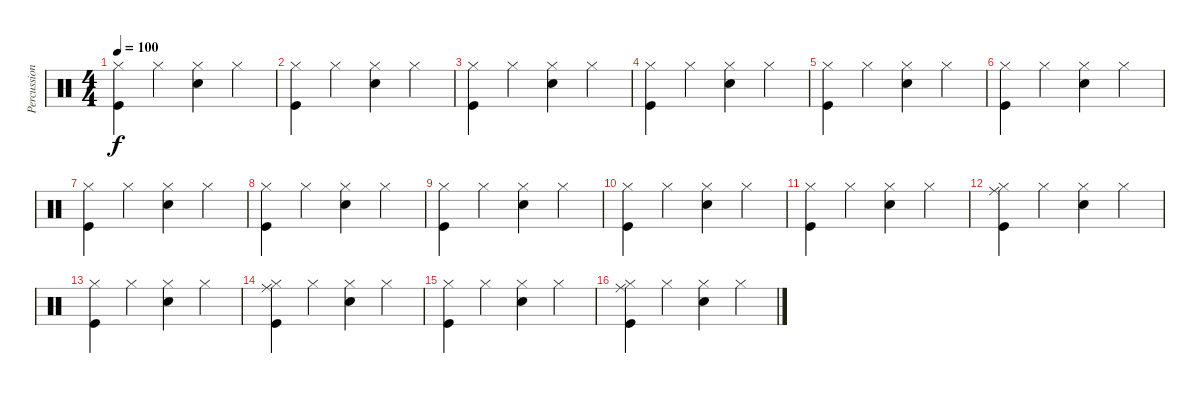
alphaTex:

\track ("Percussion" "Percussion") {instrument percussion}
\staff {score}
\articulation defaults
\ts (4 4)
\tempo 100
\clef neutral
\ks c
("Hi-Hat (closed)" "Kick (hit)").4{dy f} "Hi-Hat (closed)".4 ("Hi-Hat (closed)" "Electric Snare (hit)").4 "Hi-Hat (closed)".4 |
("Hi-Hat (closed)" "Kick (hit)").4 "Hi-Hat (closed)".4 ("Hi-Hat (closed)" "Electric Snare (hit)").4 "Hi-Hat (closed)".4 |
("Hi-Hat (closed)" "Kick (hit)").4 "Hi-Hat (closed)".4 ("Hi-Hat (closed)" "Electric Snare (hit)").4 "Hi-Hat (closed)".4 |
("Hi-Hat (closed)" "Kick (hit)").4 "Hi-Hat (closed)".4 ("Hi-Hat (closed)" "Electric Snare (hit)").4 "Hi-Hat (closed)".4 |
("Hi-Hat (closed)" "Kick (hit)").4 "Hi-Hat (closed)".4 ("Hi-Hat (closed)" "Electric Snare (hit)").4 "Hi-Hat (closed)".4 |
("Hi-Hat (closed)" "Kick (hit)").4 "Hi-Hat (closed)".4 ("Hi-Hat (closed)" "Electric Snare (hit)").4 "Hi-Hat (closed)".4 |
("Hi-Hat (closed)" "Kick (hit)").4 "Hi-Hat (closed)".4 ("Hi-Hat (closed)" "Electric Snare (hit)").4 "Hi-Hat (closed)".4 |
("Hi-Hat (closed)" "Kick (hit)").4 "Hi-Hat (closed)".4 ("Hi-Hat (closed)" "Electric Snare (hit)").4 "Hi-Hat (closed)".4 |
("Hi-Hat (closed)" "Kick (hit)").4 "Hi-Hat (closed)".4 ("Hi-Hat (closed)" "Electric Snare (hit)").4 "Hi-Hat (closed)".4 |
("Hi-Hat (closed)" "Kick (hit)").4 "Hi-Hat (closed)".4 ("Hi-Hat (closed)" "Electric Snare (hit)").4 "Hi-Hat (closed)".4 |
("Hi-Hat (closed)" "Kick (hit)").4 "Hi-Hat (closed)".4 ("Hi-Hat (closed)" "Electric Snare (hit)").4 "Hi-Hat (closed)".4 |
("Hi-Hat (closed)" "Kick (hit)" "Ride (middle)").4 "Hi-Hat (closed)".4 ("Hi-Hat (closed)" "Electric Snare (hit)").4 "Hi-Hat (closed)".4 |
("Hi-Hat (closed)" "Kick (hit)").4 "Hi-Hat (closed)".4 ("Hi-Hat (closed)" "Electric Snare (hit)").4 "Hi-Hat (closed)".4 |
("Hi-Hat (closed)" "Kick (hit)" "Ride (middle)").4 "Hi-Hat (closed)".4 ("Hi-Hat (closed)" "Electric Snare (hit)").4 "Hi-Hat (closed)".4 |
("Hi-Hat (closed)" "Kick (hit)").4 "Hi-Hat (closed)".4 ("Hi-Hat (closed)" "Electric Snare (hit)").4 "Hi-Hat (closed)".4 |
("Hi-Hat (closed)" "Kick (hit)" "Ride (middle)").4 "Hi-Hat (closed)".4 ("Hi-Hat (closed)" "Electric Snare (hit)").4 "Hi-Hat (closed)".4
